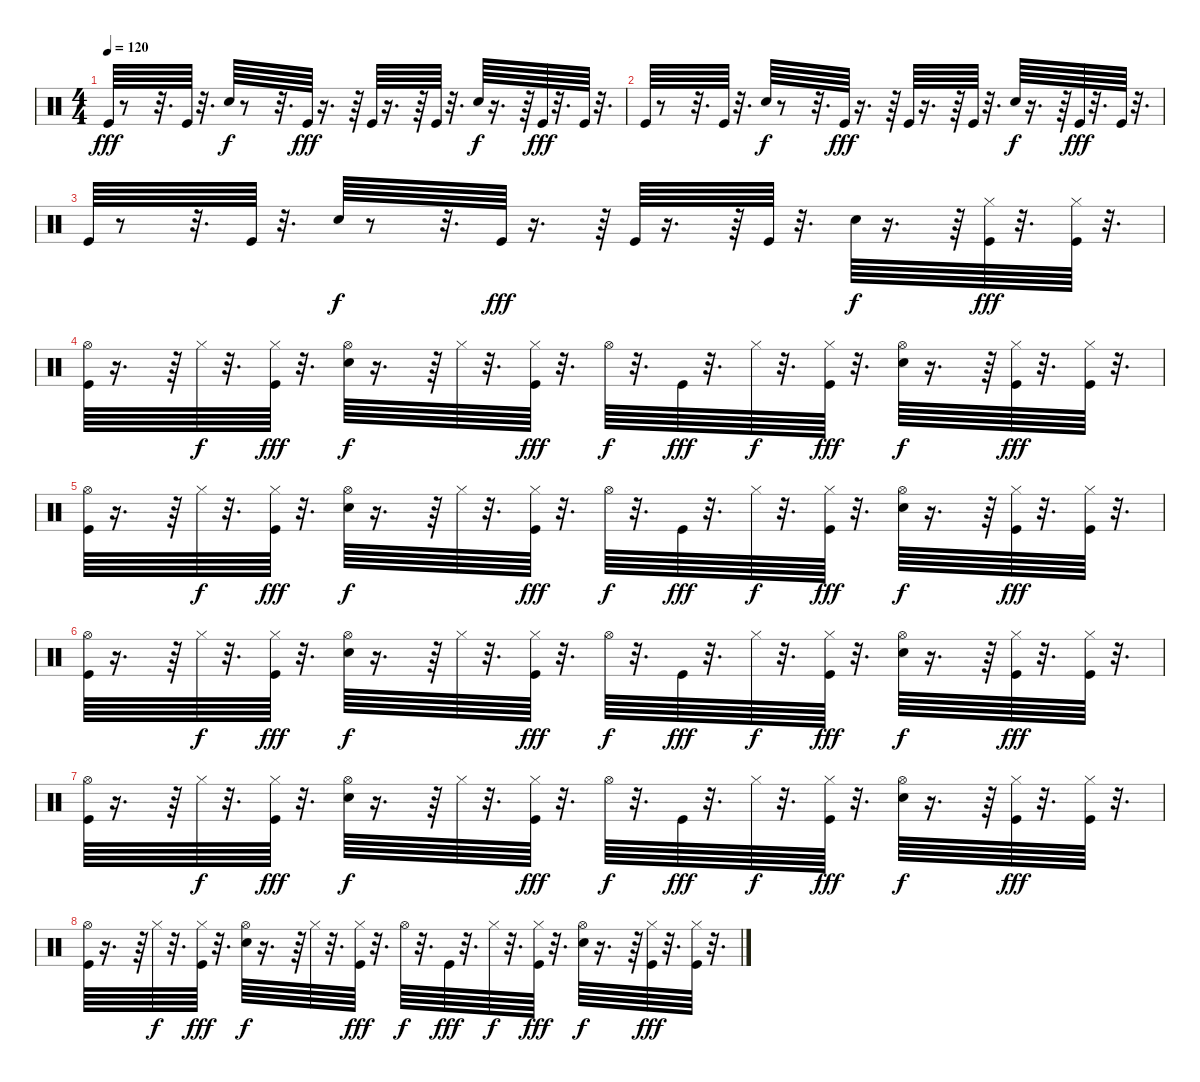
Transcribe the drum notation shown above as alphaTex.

\track "" {instrument percussion}
\staff {score}
\articulation defaults
\ts (4 4)
\tempo 120
\clef neutral
\ks c "Kick (hit)".64{dy fff}
r.8 r.32{d} "Kick (hit)".64 r.32{d} "Snare (hit) 2".64{dy f} r.8 r.32{d} "Kick (hit)".64{dy fff} r.16{d} r.64 "Kick (hit)".64 r.16{d} r.64 "Kick (hit)".64 r.32{d} "Snare (hit) 2".64{dy f} r.16{d} r.64 "Kick (hit)".64{dy fff} r.32{d} "Kick (hit)".64 r.32{d} |
"Kick (hit)".64 r.8 r.32{d} "Kick (hit)".64 r.32{d} "Snare (hit) 2".64{dy f} r.8 r.32{d} "Kick (hit)".64{dy fff} r.16{d} r.64 "Kick (hit)".64 r.16{d} r.64 "Kick (hit)".64 r.32{d} "Snare (hit) 2".64{dy f} r.16{d} r.64 "Kick (hit)".64{dy fff} r.32{d} "Kick (hit)".64 r.32{d} |
"Kick (hit)".64 r.8 r.32{d} "Kick (hit)".64 r.32{d} "Snare (hit) 2".64{dy f} r.8 r.32{d} "Kick (hit)".64{dy fff} r.16{d} r.64 "Kick (hit)".64 r.16{d} r.64 "Kick (hit)".64 r.32{d} "Snare (hit) 2".64{dy f} r.16{d} r.64 ("Kick (hit)" "Hi-Hat (closed)").64{dy fff} r.32{d} ("Kick (hit)" "Hi-Hat (closed)").64 r.32{d} |
("Kick (hit)" "Hi-Hat (open)").64 r.16{d} r.64 "Hi-Hat (closed)".64{dy f} r.32{d} ("Kick (hit)" "Hi-Hat (closed)").64{dy fff} r.32{d} ("Snare (hit) 2" "Hi-Hat (open)").64{dy f} r.16{d} r.64 "Hi-Hat (closed)".64 r.32{d} ("Kick (hit)" "Hi-Hat (closed)").64{dy fff} r.32{d} "Hi-Hat (open)".64{dy f} r.32{d} "Kick (hit)".64{dy fff} r.32{d} "Hi-Hat (closed)".64{dy f} r.32{d} ("Kick (hit)" "Hi-Hat (closed)").64{dy fff} r.32{d} ("Snare (hit) 2" "Hi-Hat (open)").64{dy f} r.16{d} r.64 ("Kick (hit)" "Hi-Hat (closed)").64{dy fff} r.32{d} ("Kick (hit)" "Hi-Hat (closed)").64 r.32{d} |
("Kick (hit)" "Hi-Hat (open)").64 r.16{d} r.64 "Hi-Hat (closed)".64{dy f} r.32{d} ("Kick (hit)" "Hi-Hat (closed)").64{dy fff} r.32{d} ("Snare (hit) 2" "Hi-Hat (open)").64{dy f} r.16{d} r.64 "Hi-Hat (closed)".64 r.32{d} ("Kick (hit)" "Hi-Hat (closed)").64{dy fff} r.32{d} "Hi-Hat (open)".64{dy f} r.32{d} "Kick (hit)".64{dy fff} r.32{d} "Hi-Hat (closed)".64{dy f} r.32{d} ("Kick (hit)" "Hi-Hat (closed)").64{dy fff} r.32{d} ("Snare (hit) 2" "Hi-Hat (open)").64{dy f} r.16{d} r.64 ("Kick (hit)" "Hi-Hat (closed)").64{dy fff} r.32{d} ("Kick (hit)" "Hi-Hat (closed)").64 r.32{d} |
("Kick (hit)" "Hi-Hat (open)").64 r.16{d} r.64 "Hi-Hat (closed)".64{dy f} r.32{d} ("Kick (hit)" "Hi-Hat (closed)").64{dy fff} r.32{d} ("Snare (hit) 2" "Hi-Hat (open)").64{dy f} r.16{d} r.64 "Hi-Hat (closed)".64 r.32{d} ("Kick (hit)" "Hi-Hat (closed)").64{dy fff} r.32{d} "Hi-Hat (open)".64{dy f} r.32{d} "Kick (hit)".64{dy fff} r.32{d} "Hi-Hat (closed)".64{dy f} r.32{d} ("Kick (hit)" "Hi-Hat (closed)").64{dy fff} r.32{d} ("Snare (hit) 2" "Hi-Hat (open)").64{dy f} r.16{d} r.64 ("Kick (hit)" "Hi-Hat (closed)").64{dy fff} r.32{d} ("Kick (hit)" "Hi-Hat (closed)").64 r.32{d} |
("Kick (hit)" "Hi-Hat (open)").64 r.16{d} r.64 "Hi-Hat (closed)".64{dy f} r.32{d} ("Kick (hit)" "Hi-Hat (closed)").64{dy fff} r.32{d} ("Snare (hit) 2" "Hi-Hat (open)").64{dy f} r.16{d} r.64 "Hi-Hat (closed)".64 r.32{d} ("Kick (hit)" "Hi-Hat (closed)").64{dy fff} r.32{d} "Hi-Hat (open)".64{dy f} r.32{d} "Kick (hit)".64{dy fff} r.32{d} "Hi-Hat (closed)".64{dy f} r.32{d} ("Kick (hit)" "Hi-Hat (closed)").64{dy fff} r.32{d} ("Snare (hit) 2" "Hi-Hat (open)").64{dy f} r.16{d} r.64 ("Kick (hit)" "Hi-Hat (closed)").64{dy fff} r.32{d} ("Kick (hit)" "Hi-Hat (closed)").64 r.32{d} |
("Kick (hit)" "Hi-Hat (open)").64 r.16{d} r.64 "Hi-Hat (closed)".64{dy f} r.32{d} ("Kick (hit)" "Hi-Hat (closed)").64{dy fff} r.32{d} ("Snare (hit) 2" "Hi-Hat (open)").64{dy f} r.16{d} r.64 "Hi-Hat (closed)".64 r.32{d} ("Kick (hit)" "Hi-Hat (closed)").64{dy fff} r.32{d} "Hi-Hat (open)".64{dy f} r.32{d} "Kick (hit)".64{dy fff} r.32{d} "Hi-Hat (closed)".64{dy f} r.32{d} ("Kick (hit)" "Hi-Hat (closed)").64{dy fff} r.32{d} ("Snare (hit) 2" "Hi-Hat (open)").64{dy f} r.16{d} r.64 ("Kick (hit)" "Hi-Hat (closed)").64{dy fff} r.32{d} ("Kick (hit)" "Hi-Hat (closed)").64 r.32{d}
